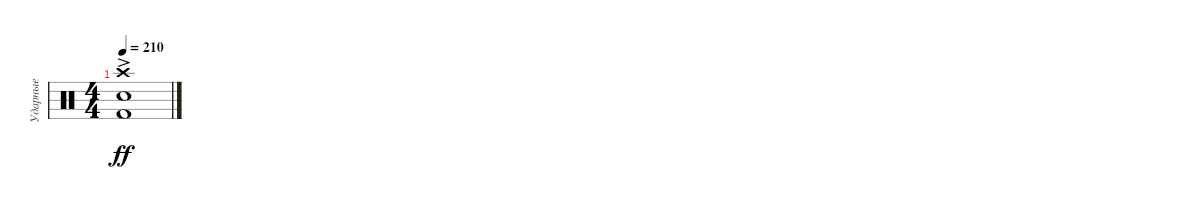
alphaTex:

\track ("Ударные" "Ударные") {instrument percussion}
\staff {score}
\articulation defaults
\ts (4 4)
\tempo 210
\clef neutral
\ks c
("Crash high (hit)"{ac} "Snare (hit) 2" "Kick (hit) 2").1{dy ff volume 0}
